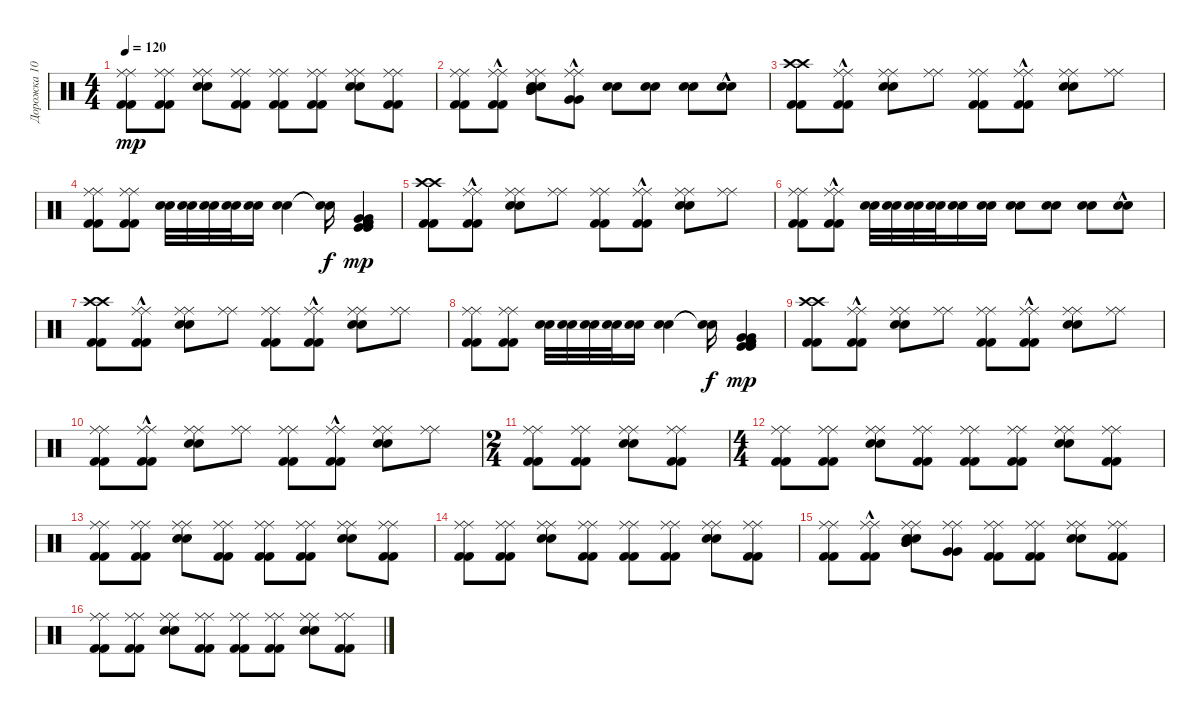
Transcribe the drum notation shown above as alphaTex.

\track ("Дорожка 10" "Дорожка 10") {instrument percussion}
\staff {score}
\articulation defaults
\ts (4 4)
\tempo 120
\clef neutral
\ks c
("Kick (hit) 2" "Ride (middle)" "Kick (hit) 2" "Ride (middle)").8{dy mp} ("Kick (hit) 2" "Ride (middle)" "Kick (hit) 2" "Ride (middle)").8 ("Snare (hit) 2" "Ride (middle)" "Snare (hit) 2" "Ride (middle)").8 ("Kick (hit) 2" "Ride (middle)" "Kick (hit) 2" "Ride (middle)").8 ("Kick (hit) 2" "Ride (middle)" "Kick (hit) 2" "Ride (middle)").8 ("Kick (hit) 2" "Ride (middle)" "Kick (hit) 2" "Ride (middle)").8 ("Snare (hit) 2" "Ride (middle)" "Snare (hit) 2" "Ride (middle)").8 ("Kick (hit) 2" "Ride (middle)" "Kick (hit) 2" "Ride (middle)").8 |
("Kick (hit) 2" "Ride (middle)" "Kick (hit) 2" "Ride (middle)").8 ("Kick (hit) 2"{hac} "Ride (middle)" "Kick (hit) 2"{hac} "Ride (middle)").8 ("Snare (hit) 2" "Mid Tom (hit)" "Ride (middle)" "Snare (hit) 2" "Mid Tom (hit)" "Ride (middle)").8 ("Very Low Tom (hit)" "Ride (middle)"{hac} "Very Low Tom (hit)" "Ride (middle)"{hac}).8 ("Snare (hit) 2" "Snare (hit) 2").8 ("Snare (hit) 2" "Snare (hit) 2").8 ("Snare (hit) 2" "Snare (hit) 2").8 ("Snare (hit) 2"{hac} "Snare (hit) 2"{hac}).8 |
("Kick (hit) 2" "Crash high (hit)" "Kick (hit) 2" "Crash high (hit)").8 ("Kick (hit) 2"{hac} "Ride (middle)" "Kick (hit) 2"{hac} "Ride (middle)").8 ("Snare (hit) 2" "Ride (middle)" "Snare (hit) 2" "Ride (middle)").8 ("Ride (middle)" "Ride (middle)").8 ("Kick (hit) 2" "Ride (middle)" "Kick (hit) 2" "Ride (middle)").8 ("Kick (hit) 2"{hac} "Ride (middle)" "Kick (hit) 2"{hac} "Ride (middle)").8 ("Snare (hit) 2" "Ride (middle)" "Snare (hit) 2" "Ride (middle)").8 ("Ride (middle)" "Ride (middle)").8 |
("Kick (hit) 2" "Ride (middle)" "Kick (hit) 2" "Ride (middle)").8 ("Kick (hit) 2" "Ride (middle)" "Kick (hit) 2" "Ride (middle)").8 ("Snare (hit) 2" "Snare (hit) 2").32 ("Snare (hit) 2" "Snare (hit) 2").32 ("Snare (hit) 2" "Snare (hit) 2").32 ("Snare (hit) 2" "Snare (hit) 2").32 ("Snare (hit) 2" "Snare (hit) 2").16 ("Snare (hit) 2" "Snare (hit) 2").4 ("Snare (hit)"{t} "Snare (hit)"{t}).16{dy f} ("Kick (hit)" "Kick (hit) 2" "Very Low Tom (hit)" "Kick (hit)" "Kick (hit) 2" "Very Low Tom (hit)").4{dy mp} |
("Kick (hit) 2" "Crash high (hit)" "Kick (hit) 2" "Crash high (hit)").8 ("Kick (hit) 2"{hac} "Ride (middle)" "Kick (hit) 2"{hac} "Ride (middle)").8 ("Snare (hit) 2" "Ride (middle)" "Snare (hit) 2" "Ride (middle)").8 ("Ride (middle)" "Ride (middle)").8 ("Kick (hit) 2" "Ride (middle)" "Kick (hit) 2" "Ride (middle)").8 ("Kick (hit) 2"{hac} "Ride (middle)" "Kick (hit) 2"{hac} "Ride (middle)").8 ("Snare (hit) 2" "Ride (middle)" "Snare (hit) 2" "Ride (middle)").8 ("Ride (middle)" "Ride (middle)").8 |
("Kick (hit) 2" "Ride (middle)" "Kick (hit) 2" "Ride (middle)").8 ("Kick (hit) 2"{hac} "Ride (middle)" "Kick (hit) 2"{hac} "Ride (middle)").8 ("Snare (hit) 2" "Snare (hit) 2").32 ("Snare (hit) 2" "Snare (hit) 2").32 ("Snare (hit) 2" "Snare (hit) 2").32 ("Snare (hit) 2" "Snare (hit) 2").32 ("Snare (hit) 2" "Snare (hit) 2").16 ("Snare (hit) 2" "Snare (hit) 2").16 ("Snare (hit) 2" "Snare (hit) 2").8 ("Snare (hit) 2" "Snare (hit) 2").8 ("Snare (hit) 2" "Snare (hit) 2").8 ("Snare (hit) 2"{hac} "Snare (hit) 2"{hac}).8 |
("Kick (hit) 2" "Crash high (hit)" "Kick (hit) 2" "Crash high (hit)").8 ("Kick (hit) 2"{hac} "Ride (middle)" "Kick (hit) 2"{hac} "Ride (middle)").8 ("Snare (hit) 2" "Ride (middle)" "Snare (hit) 2" "Ride (middle)").8 ("Ride (middle)" "Ride (middle)").8 ("Kick (hit) 2" "Ride (middle)" "Kick (hit) 2" "Ride (middle)").8 ("Kick (hit) 2"{hac} "Ride (middle)" "Kick (hit) 2"{hac} "Ride (middle)").8 ("Snare (hit) 2" "Ride (middle)" "Snare (hit) 2" "Ride (middle)").8 ("Ride (middle)" "Ride (middle)").8 |
("Kick (hit) 2" "Ride (middle)" "Kick (hit) 2" "Ride (middle)").8 ("Kick (hit) 2" "Ride (middle)" "Kick (hit) 2" "Ride (middle)").8 ("Snare (hit) 2" "Snare (hit) 2").32 ("Snare (hit) 2" "Snare (hit) 2").32 ("Snare (hit) 2" "Snare (hit) 2").32 ("Snare (hit) 2" "Snare (hit) 2").32 ("Snare (hit) 2" "Snare (hit) 2").16 ("Snare (hit) 2" "Snare (hit) 2").4 ("Snare (hit)"{t} "Snare (hit)"{t}).16{dy f} ("Kick (hit)" "Kick (hit) 2" "Very Low Tom (hit)" "Kick (hit)" "Kick (hit) 2" "Very Low Tom (hit)").4{dy mp} |
("Kick (hit) 2" "Crash high (hit)" "Kick (hit) 2" "Crash high (hit)").8 ("Kick (hit) 2"{hac} "Ride (middle)" "Kick (hit) 2"{hac} "Ride (middle)").8 ("Snare (hit) 2" "Ride (middle)" "Snare (hit) 2" "Ride (middle)").8 ("Ride (middle)" "Ride (middle)").8 ("Kick (hit) 2" "Ride (middle)" "Kick (hit) 2" "Ride (middle)").8 ("Kick (hit) 2"{hac} "Ride (middle)" "Kick (hit) 2"{hac} "Ride (middle)").8 ("Snare (hit) 2" "Ride (middle)" "Snare (hit) 2" "Ride (middle)").8 ("Ride (middle)" "Ride (middle)").8 |
("Kick (hit) 2" "Ride (middle)" "Kick (hit) 2" "Ride (middle)").8 ("Kick (hit) 2"{hac} "Ride (middle)" "Kick (hit) 2"{hac} "Ride (middle)").8 ("Snare (hit) 2" "Ride (middle)" "Snare (hit) 2" "Ride (middle)").8 ("Ride (middle)" "Ride (middle)").8 ("Kick (hit) 2" "Ride (middle)" "Kick (hit) 2" "Ride (middle)").8 ("Kick (hit) 2"{hac} "Ride (middle)" "Kick (hit) 2"{hac} "Ride (middle)").8 ("Snare (hit) 2" "Ride (middle)" "Snare (hit) 2" "Ride (middle)").8 ("Ride (middle)" "Ride (middle)").8 |
\ts (2 4)
("Kick (hit) 2" "Ride (middle)" "Kick (hit) 2" "Ride (middle)").8 ("Kick (hit) 2" "Ride (middle)" "Kick (hit) 2" "Ride (middle)").8 ("Snare (hit) 2" "Ride (middle)" "Snare (hit) 2" "Ride (middle)").8 ("Kick (hit) 2" "Ride (middle)" "Kick (hit) 2" "Ride (middle)").8 |
\ts (4 4)
("Kick (hit) 2" "Ride (middle)" "Kick (hit) 2" "Ride (middle)").8 ("Kick (hit) 2" "Ride (middle)" "Kick (hit) 2" "Ride (middle)").8 ("Snare (hit) 2" "Ride (middle)" "Snare (hit) 2" "Ride (middle)").8 ("Kick (hit) 2" "Ride (middle)" "Kick (hit) 2" "Ride (middle)").8 ("Kick (hit) 2" "Ride (middle)" "Kick (hit) 2" "Ride (middle)").8 ("Kick (hit) 2" "Ride (middle)" "Kick (hit) 2" "Ride (middle)").8 ("Snare (hit) 2" "Ride (middle)" "Snare (hit) 2" "Ride (middle)").8 ("Kick (hit) 2" "Ride (middle)" "Kick (hit) 2" "Ride (middle)").8 |
("Kick (hit) 2" "Ride (middle)" "Kick (hit) 2" "Ride (middle)").8 ("Kick (hit) 2" "Ride (middle)" "Kick (hit) 2" "Ride (middle)").8 ("Snare (hit) 2" "Ride (middle)" "Snare (hit) 2" "Ride (middle)").8 ("Kick (hit) 2" "Ride (middle)" "Kick (hit) 2" "Ride (middle)").8 ("Kick (hit) 2" "Ride (middle)" "Kick (hit) 2" "Ride (middle)").8 ("Kick (hit) 2" "Ride (middle)" "Kick (hit) 2" "Ride (middle)").8 ("Snare (hit) 2" "Ride (middle)" "Snare (hit) 2" "Ride (middle)").8 ("Kick (hit) 2" "Ride (middle)" "Kick (hit) 2" "Ride (middle)").8 |
("Kick (hit) 2" "Ride (middle)" "Kick (hit) 2" "Ride (middle)").8 ("Kick (hit) 2" "Ride (middle)" "Kick (hit) 2" "Ride (middle)").8 ("Snare (hit) 2" "Ride (middle)" "Snare (hit) 2" "Ride (middle)").8 ("Kick (hit) 2" "Ride (middle)" "Kick (hit) 2" "Ride (middle)").8 ("Kick (hit) 2" "Ride (middle)" "Kick (hit) 2" "Ride (middle)").8 ("Kick (hit) 2" "Ride (middle)" "Kick (hit) 2" "Ride (middle)").8 ("Snare (hit) 2" "Ride (middle)" "Snare (hit) 2" "Ride (middle)").8 ("Kick (hit) 2" "Ride (middle)" "Kick (hit) 2" "Ride (middle)").8 |
("Kick (hit) 2" "Ride (middle)" "Kick (hit) 2" "Ride (middle)").8 ("Kick (hit) 2"{hac} "Ride (middle)" "Kick (hit) 2"{hac} "Ride (middle)").8 ("Snare (hit) 2" "Mid Tom (hit)" "Ride (middle)" "Snare (hit) 2" "Mid Tom (hit)" "Ride (middle)").8 ("Very Low Tom (hit)" "Ride (middle)" "Very Low Tom (hit)" "Ride (middle)").8 ("Kick (hit) 2" "Ride (middle)" "Kick (hit) 2" "Ride (middle)").8 ("Kick (hit) 2" "Ride (middle)" "Kick (hit) 2" "Ride (middle)").8 ("Snare (hit) 2" "Ride (middle)" "Snare (hit) 2" "Ride (middle)").8 ("Kick (hit) 2" "Ride (middle)" "Kick (hit) 2" "Ride (middle)").8 |
("Kick (hit) 2" "Ride (middle)" "Kick (hit) 2" "Ride (middle)").8 ("Kick (hit) 2" "Ride (middle)" "Kick (hit) 2" "Ride (middle)").8 ("Snare (hit) 2" "Ride (middle)" "Snare (hit) 2" "Ride (middle)").8 ("Kick (hit) 2" "Ride (middle)" "Kick (hit) 2" "Ride (middle)").8 ("Kick (hit) 2" "Ride (middle)" "Kick (hit) 2" "Ride (middle)").8 ("Kick (hit) 2" "Ride (middle)" "Kick (hit) 2" "Ride (middle)").8 ("Snare (hit) 2" "Ride (middle)" "Snare (hit) 2" "Ride (middle)").8 ("Kick (hit) 2" "Ride (middle)" "Kick (hit) 2" "Ride (middle)").8
